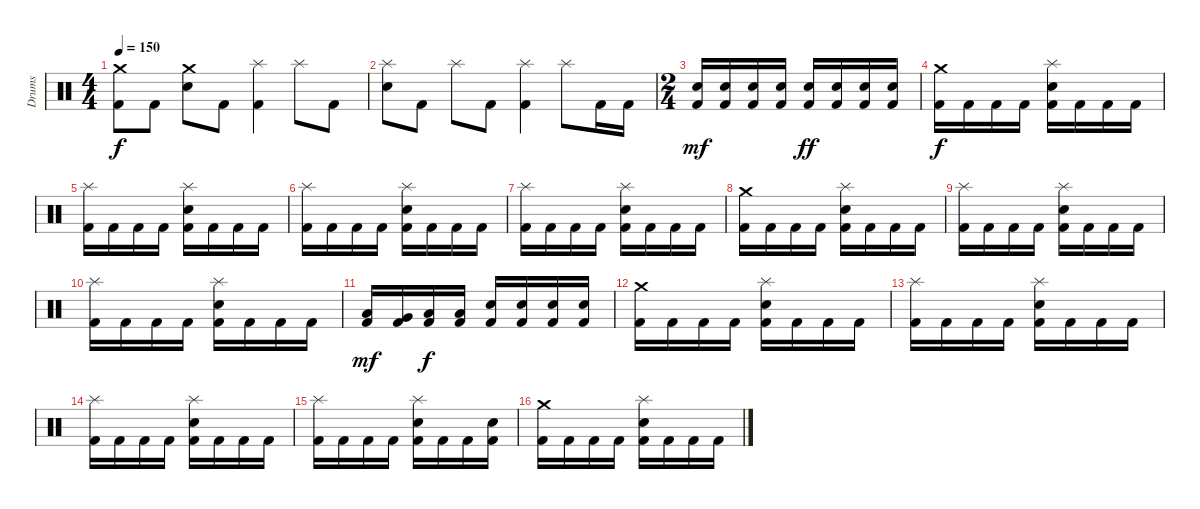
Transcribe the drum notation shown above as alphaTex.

\track ("Drums" "Drums") {instrument percussion}
\staff
\articulation defaults
\ts (4 4)
\tempo 150
\clef neutral
\ks c
("Kick (hit) 2" "Crash medium (hit)").8{dy f} "Kick (hit) 2".8 ("Electric Snare (hit)" "Crash medium (hit)").8 "Kick (hit) 2".8 ("Kick (hit) 2" "Splash (hit)").4 "Splash (hit)".8 "Kick (hit) 2".8 |
("Electric Snare (hit)" "Splash (hit)").8 "Kick (hit) 2".8 "Splash (hit)".8 "Kick (hit) 2".8 ("Kick (hit) 2" "Splash (hit)").4 "Splash (hit)".8 "Kick (hit) 2".16 "Kick (hit) 2".16 |
\ts (2 4)
("Kick (hit) 2" "Electric Snare (hit)").16{dy mf} ("Kick (hit) 2" "Electric Snare (hit)").16 ("Kick (hit) 2" "Electric Snare (hit)").16 ("Kick (hit) 2" "Electric Snare (hit)").16 ("Kick (hit) 2" "Electric Snare (hit)").16{dy ff} ("Kick (hit) 2" "Electric Snare (hit)").16 ("Kick (hit) 2" "Electric Snare (hit)").16 ("Kick (hit) 2" "Electric Snare (hit)").16 |
("Kick (hit) 2" "Crash medium (hit)").16{dy f} "Kick (hit) 2".16 "Kick (hit) 2".16 "Kick (hit) 2".16 ("Kick (hit) 2" "Electric Snare (hit)" "Splash (hit)").16 "Kick (hit) 2".16 "Kick (hit) 2".16 "Kick (hit) 2".16 |
("Kick (hit) 2" "Splash (hit)").16 "Kick (hit) 2".16 "Kick (hit) 2".16 "Kick (hit) 2".16 ("Kick (hit) 2" "Electric Snare (hit)" "Splash (hit)").16 "Kick (hit) 2".16 "Kick (hit) 2".16 "Kick (hit) 2".16 |
("Kick (hit) 2" "Splash (hit)").16 "Kick (hit) 2".16 "Kick (hit) 2".16 "Kick (hit) 2".16 ("Kick (hit) 2" "Electric Snare (hit)" "Splash (hit)").16 "Kick (hit) 2".16 "Kick (hit) 2".16 "Kick (hit) 2".16 |
("Kick (hit) 2" "Splash (hit)").16 "Kick (hit) 2".16 "Kick (hit) 2".16 "Kick (hit) 2".16 ("Kick (hit) 2" "Electric Snare (hit)" "Splash (hit)").16 "Kick (hit) 2".16 "Kick (hit) 2".16 "Kick (hit) 2".16 |
("Kick (hit) 2" "Crash medium (hit)").16 "Kick (hit) 2".16 "Kick (hit) 2".16 "Kick (hit) 2".16 ("Kick (hit) 2" "Electric Snare (hit)" "Splash (hit)").16 "Kick (hit) 2".16 "Kick (hit) 2".16 "Kick (hit) 2".16 |
("Kick (hit) 2" "Splash (hit)").16 "Kick (hit) 2".16 "Kick (hit) 2".16 "Kick (hit) 2".16 ("Kick (hit) 2" "Electric Snare (hit)" "Splash (hit)").16 "Kick (hit) 2".16 "Kick (hit) 2".16 "Kick (hit) 2".16 |
("Kick (hit) 2" "Splash (hit)").16 "Kick (hit) 2".16 "Kick (hit) 2".16 "Kick (hit) 2".16 ("Kick (hit) 2" "Electric Snare (hit)" "Splash (hit)").16 "Kick (hit) 2".16 "Kick (hit) 2".16 "Kick (hit) 2".16 |
("Kick (hit) 2" "Low Tom (hit)").16{dy mf} ("Kick (hit) 2" "Very Low Tom (hit)").16 ("Kick (hit) 2" "Low Floor Tom (hit)").16{dy f} ("Kick (hit) 2" "Low Floor Tom (hit)").16 ("Kick (hit) 2" "Electric Snare (hit)").16 ("Kick (hit) 2" "Electric Snare (hit)").16 ("Kick (hit) 2" "Electric Snare (hit)").16 ("Kick (hit) 2" "Electric Snare (hit)").16 |
("Kick (hit) 2" "Crash medium (hit)").16 "Kick (hit) 2".16 "Kick (hit) 2".16 "Kick (hit) 2".16 ("Kick (hit) 2" "Electric Snare (hit)" "Splash (hit)").16 "Kick (hit) 2".16 "Kick (hit) 2".16 "Kick (hit) 2".16 |
("Kick (hit) 2" "Splash (hit)").16 "Kick (hit) 2".16 "Kick (hit) 2".16 "Kick (hit) 2".16 ("Kick (hit) 2" "Electric Snare (hit)" "Splash (hit)").16 "Kick (hit) 2".16 "Kick (hit) 2".16 "Kick (hit) 2".16 |
("Kick (hit) 2" "Splash (hit)").16 "Kick (hit) 2".16 "Kick (hit) 2".16 "Kick (hit) 2".16 ("Kick (hit) 2" "Electric Snare (hit)" "Splash (hit)").16 "Kick (hit) 2".16 "Kick (hit) 2".16 "Kick (hit) 2".16 |
("Kick (hit) 2" "Splash (hit)").16 "Kick (hit) 2".16 "Kick (hit) 2".16 "Kick (hit) 2".16 ("Kick (hit) 2" "Electric Snare (hit)" "Splash (hit)").16 "Kick (hit) 2".16 "Kick (hit) 2".16 ("Kick (hit) 2" "Electric Snare (hit)").16 |
("Kick (hit) 2" "Crash medium (hit)").16 "Kick (hit) 2".16 "Kick (hit) 2".16 "Kick (hit) 2".16 ("Kick (hit) 2" "Electric Snare (hit)" "Splash (hit)").16 "Kick (hit) 2".16 "Kick (hit) 2".16 "Kick (hit) 2".16
